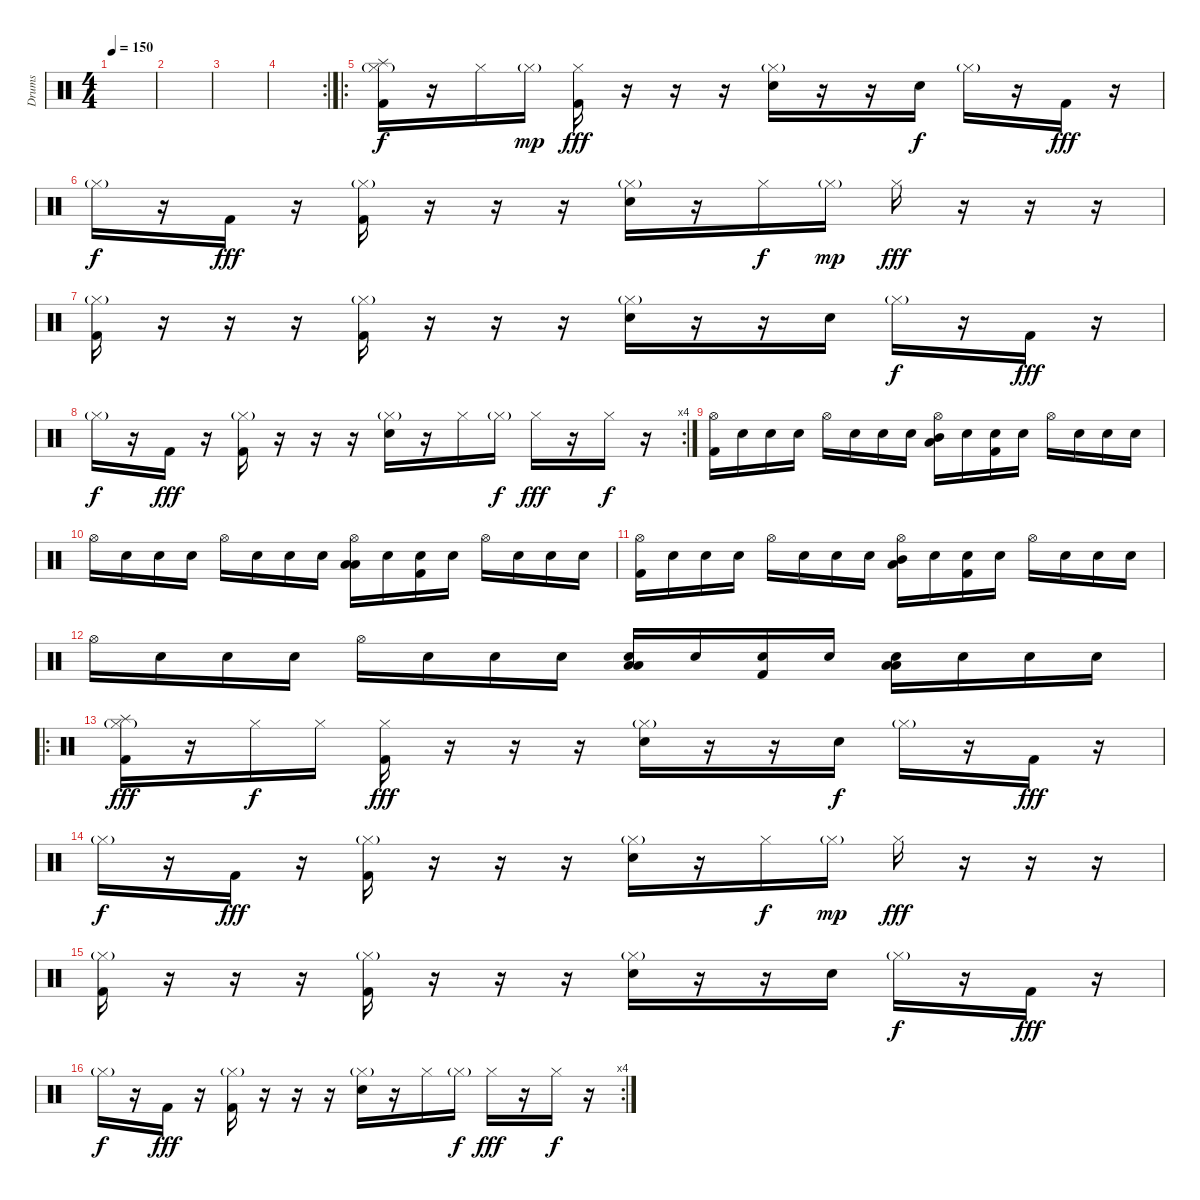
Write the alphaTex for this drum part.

\track ("Drums" "Drums") {instrument percussion}
\staff {score}
\articulation defaults
\ts (4 4)
\tempo 150
\clef neutral
\ks c
|
|
|
\rc 2
|
\ro
("Hi-Hat (closed)"{g} "Splash (hit)" "Kick (hit) 2").16 r.16 "Hi-Hat (closed)".16{dy f} "Hi-Hat (closed)"{g}.16{dy mp} ("Hi-Hat (closed)" "Kick (hit) 2").16{dy fff} r.16 r.16 r.16 ("Hi-Hat (closed)"{g} "Electric Snare (hit)").16 r.16 r.16 "Electric Snare (hit)".16{dy f} "Hi-Hat (closed)"{g}.16 r.16 "Kick (hit) 2".16{dy fff} r.16 |
"Hi-Hat (closed)"{g}.16{dy f} r.16 "Kick (hit) 2".16{dy fff} r.16 ("Hi-Hat (closed)"{g} "Kick (hit) 2").16 r.16 r.16 r.16 ("Hi-Hat (closed)"{g} "Electric Snare (hit)").16 r.16 "Hi-Hat (closed)".16{dy f} "Hi-Hat (closed)"{g}.16{dy mp} "Hi-Hat (closed)".16{dy fff} r.16 r.16 r.16 |
("Hi-Hat (closed)"{g} "Kick (hit) 2").16 r.16 r.16 r.16 ("Hi-Hat (closed)"{g} "Kick (hit) 2").16 r.16 r.16 r.16 ("Hi-Hat (closed)"{g} "Electric Snare (hit)").16 r.16 r.16 "Electric Snare (hit)".16 "Hi-Hat (closed)"{g}.16{dy f} r.16 "Kick (hit) 2".16{dy fff} r.16 |
\rc 4 "Hi-Hat (closed)"{g}.16{dy f}
r.16 "Kick (hit) 2".16{dy fff} r.16 ("Hi-Hat (closed)"{g} "Kick (hit) 2").16 r.16 r.16 r.16 ("Hi-Hat (closed)"{g} "Electric Snare (hit)").16 r.16 "Hi-Hat (closed)".16 "Hi-Hat (closed)"{g}.16{dy f} "Hi-Hat (closed)".16{dy fff} r.16 "Hi-Hat (closed)".16{dy f} r.16 |
("Hi-Hat (open)" "Kick (hit) 2").16 "Snare (hit)".16 "Snare (hit)".16 "Snare (hit)".16 "Hi-Hat (open)".16 "Snare (hit)".16 "Snare (hit)".16 "Snare (hit)".16 ("Hi-Hat (open)" "Mid Tom (hit)" "Low Tom (hit)").16 "Snare (hit)".16 ("Snare (hit)" "Kick (hit) 2").16 "Snare (hit)".16 "Hi-Hat (open)".16 "Snare (hit)".16 "Snare (hit)".16 "Snare (hit)".16 |
"Hi-Hat (open)".16 "Snare (hit)".16 "Snare (hit)".16 "Snare (hit)".16 "Hi-Hat (open)".16 "Snare (hit)".16 "Snare (hit)".16 "Snare (hit)".16 ("Hi-Hat (open)" "Low Tom (hit)" "Low Floor Tom (hit)").16 "Snare (hit)".16 ("Snare (hit)" "Kick (hit) 2").16 "Snare (hit)".16 "Hi-Hat (open)".16 "Snare (hit)".16 "Snare (hit)".16 "Snare (hit)".16 |
("Hi-Hat (open)" "Kick (hit) 2").16 "Snare (hit)".16 "Snare (hit)".16 "Snare (hit)".16 "Hi-Hat (open)".16 "Snare (hit)".16 "Snare (hit)".16 "Snare (hit)".16 ("Hi-Hat (open)" "Mid Tom (hit)" "Low Tom (hit)").16 "Snare (hit)".16 ("Snare (hit)" "Kick (hit) 2").16 "Snare (hit)".16 "Hi-Hat (open)".16 "Snare (hit)".16 "Snare (hit)".16 "Snare (hit)".16 |
"Hi-Hat (open)".16 "Snare (hit)".16 "Snare (hit)".16 "Snare (hit)".16 "Hi-Hat (open)".16 "Snare (hit)".16 "Snare (hit)".16 "Snare (hit)".16 ("Snare (hit)" "Low Tom (hit)" "Low Floor Tom (hit)").16 "Snare (hit)".16 ("Snare (hit)" "Kick (hit) 2").16 "Snare (hit)".16 ("Snare (hit)" "Low Tom (hit)" "Low Floor Tom (hit)").16 "Snare (hit)".16 "Snare (hit)".16 "Snare (hit)".16 |
\ro
("Hi-Hat (closed)"{g} "Splash (hit)" "Kick (hit) 2").16{dy fff} r.16 "Hi-Hat (closed)".16{dy f} "Hi-Hat (closed)".16 ("Hi-Hat (closed)" "Kick (hit) 2").16{dy fff} r.16 r.16 r.16 ("Hi-Hat (closed)"{g} "Electric Snare (hit)").16 r.16 r.16 "Electric Snare (hit)".16{dy f} "Hi-Hat (closed)"{g}.16 r.16 "Kick (hit) 2".16{dy fff} r.16 |
"Hi-Hat (closed)"{g}.16{dy f} r.16 "Kick (hit) 2".16{dy fff} r.16 ("Hi-Hat (closed)"{g} "Kick (hit) 2").16 r.16 r.16 r.16 ("Hi-Hat (closed)"{g} "Electric Snare (hit)").16 r.16 "Hi-Hat (closed)".16{dy f} "Hi-Hat (closed)"{g}.16{dy mp} "Hi-Hat (closed)".16{dy fff} r.16 r.16 r.16 |
("Hi-Hat (closed)"{g} "Kick (hit) 2").16 r.16 r.16 r.16 ("Hi-Hat (closed)"{g} "Kick (hit) 2").16 r.16 r.16 r.16 ("Hi-Hat (closed)"{g} "Electric Snare (hit)").16 r.16 r.16 "Electric Snare (hit)".16 "Hi-Hat (closed)"{g}.16{dy f} r.16 "Kick (hit) 2".16{dy fff} r.16 |
\rc 4 "Hi-Hat (closed)"{g}.16{dy f}
r.16 "Kick (hit) 2".16{dy fff} r.16 ("Hi-Hat (closed)"{g} "Kick (hit) 2").16 r.16 r.16 r.16 ("Hi-Hat (closed)"{g} "Electric Snare (hit)").16 r.16 "Hi-Hat (closed)".16 "Hi-Hat (closed)"{g}.16{dy f} "Hi-Hat (closed)".16{dy fff} r.16 "Hi-Hat (closed)".16{dy f} r.16
